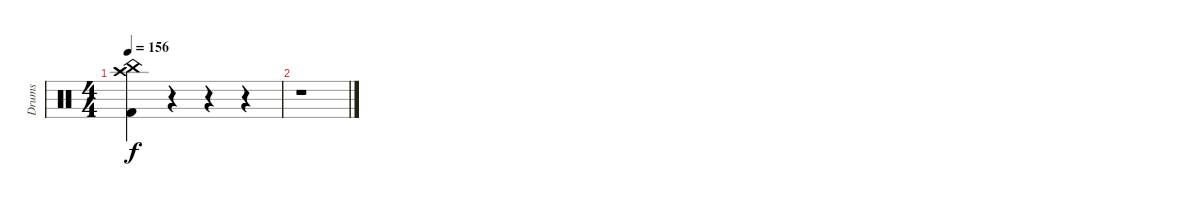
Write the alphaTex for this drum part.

\track ("Drums" "Drums") {instrument percussion}
\staff {score}
\articulation defaults
\ts (4 4)
\tempo 156
\clef neutral
\ks c
("China (hit)" "Crash high (hit)" "Kick (hit) 2").4{dy f} r.4 r.4 r.4 |
r.1
